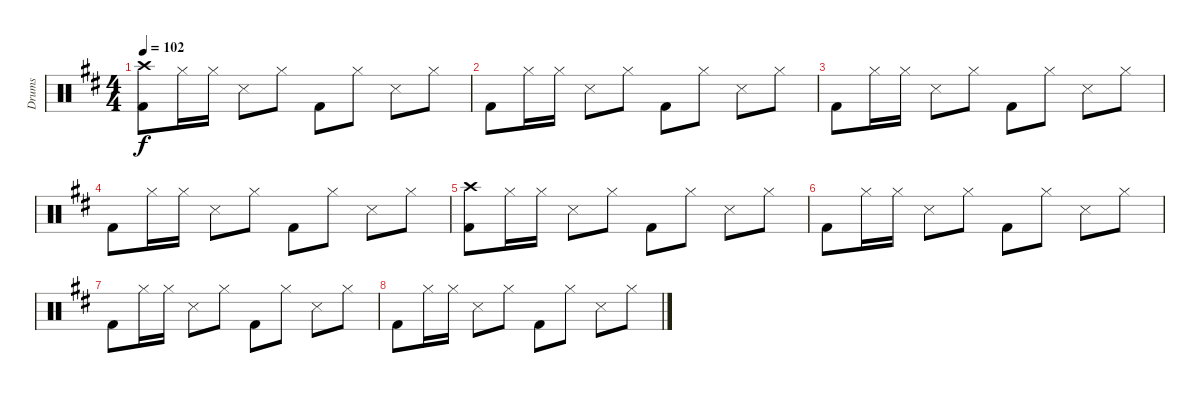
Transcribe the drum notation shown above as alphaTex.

\track ("Drums" "Drums") {instrument percussion}
\staff {score}
\articulation defaults
\ts (4 4)
\tempo 102
\clef neutral
\ks d
("Crash high (hit)" "Kick (hit) 2").8{dy f} "Hi-Hat (closed)".16 "Hi-Hat (closed)".16 "Snare (side stick) 3".8 "Hi-Hat (closed)".8 "Kick (hit) 2".8 "Hi-Hat (closed)".8 "Snare (side stick) 3".8 "Hi-Hat (closed)".8 |
"Kick (hit) 2".8 "Hi-Hat (closed)".16 "Hi-Hat (closed)".16 "Snare (side stick) 3".8 "Hi-Hat (closed)".8 "Kick (hit) 2".8 "Hi-Hat (closed)".8 "Snare (side stick) 3".8 "Hi-Hat (closed)".8 |
"Kick (hit) 2".8 "Hi-Hat (closed)".16 "Hi-Hat (closed)".16 "Snare (side stick) 3".8 "Hi-Hat (closed)".8 "Kick (hit) 2".8 "Hi-Hat (closed)".8 "Snare (side stick) 3".8 "Hi-Hat (closed)".8 |
"Kick (hit) 2".8 "Hi-Hat (closed)".16 "Hi-Hat (closed)".16 "Snare (side stick) 3".8 "Hi-Hat (closed)".8 "Kick (hit) 2".8 "Hi-Hat (closed)".8 "Snare (side stick) 3".8 "Hi-Hat (closed)".8 |
("Crash high (hit)" "Kick (hit) 2").8 "Hi-Hat (closed)".16 "Hi-Hat (closed)".16 "Snare (side stick) 3".8 "Hi-Hat (closed)".8 "Kick (hit) 2".8 "Hi-Hat (closed)".8 "Snare (side stick) 3".8 "Hi-Hat (closed)".8 |
"Kick (hit) 2".8 "Hi-Hat (closed)".16 "Hi-Hat (closed)".16 "Snare (side stick) 3".8 "Hi-Hat (closed)".8 "Kick (hit) 2".8 "Hi-Hat (closed)".8 "Snare (side stick) 3".8 "Hi-Hat (closed)".8 |
"Kick (hit) 2".8 "Hi-Hat (closed)".16 "Hi-Hat (closed)".16 "Snare (side stick) 3".8 "Hi-Hat (closed)".8 "Kick (hit) 2".8 "Hi-Hat (closed)".8 "Snare (side stick) 3".8 "Hi-Hat (closed)".8 |
"Kick (hit) 2".8 "Hi-Hat (closed)".16 "Hi-Hat (closed)".16 "Snare (side stick) 3".8 "Hi-Hat (closed)".8 "Kick (hit) 2".8 "Hi-Hat (closed)".8 "Snare (side stick) 3".8 "Hi-Hat (closed)".8
